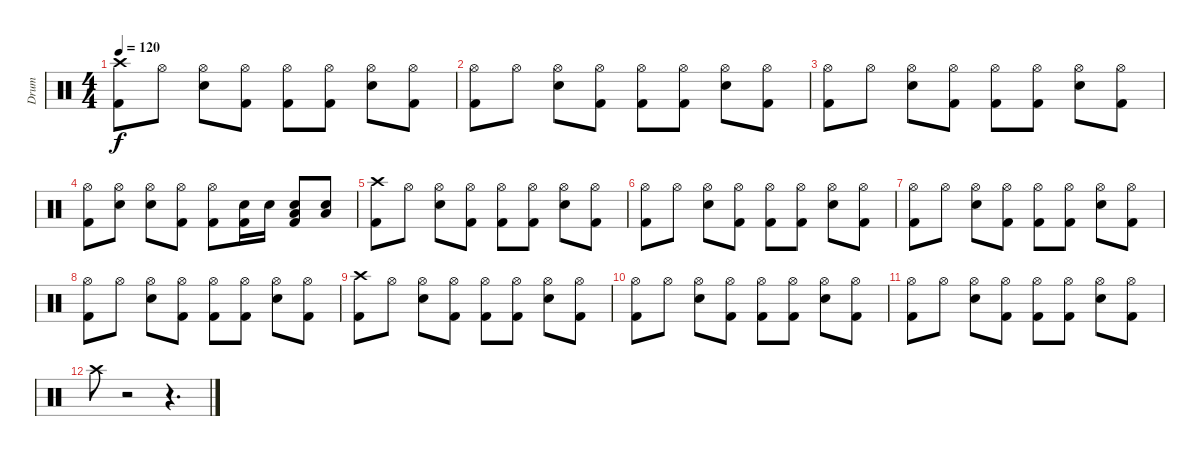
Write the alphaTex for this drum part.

\track ("Drum" "Drum") {instrument percussion}
\staff {score}
\articulation defaults
\ts (4 4)
\tempo 120
\clef neutral
\ks c
("Crash high (hit)" "Kick (hit) 2").8{dy f} "Hi-Hat (open)".8 ("Hi-Hat (open)" "Snare (hit) 2").8 ("Hi-Hat (open)" "Kick (hit) 2").8 ("Hi-Hat (open)" "Kick (hit) 2").8 ("Hi-Hat (open)" "Kick (hit) 2").8 ("Hi-Hat (open)" "Snare (hit) 2").8 ("Hi-Hat (open)" "Kick (hit) 2").8 |
("Hi-Hat (open)" "Kick (hit) 2").8 "Hi-Hat (open)".8 ("Hi-Hat (open)" "Snare (hit) 2").8 ("Hi-Hat (open)" "Kick (hit) 2").8 ("Hi-Hat (open)" "Kick (hit) 2").8 ("Hi-Hat (open)" "Kick (hit) 2").8 ("Hi-Hat (open)" "Snare (hit) 2").8 ("Hi-Hat (open)" "Kick (hit) 2").8 |
("Hi-Hat (open)" "Kick (hit) 2").8 "Hi-Hat (open)".8 ("Hi-Hat (open)" "Snare (hit) 2").8 ("Hi-Hat (open)" "Kick (hit) 2").8 ("Hi-Hat (open)" "Kick (hit) 2").8 ("Hi-Hat (open)" "Kick (hit) 2").8 ("Hi-Hat (open)" "Snare (hit) 2").8 ("Hi-Hat (open)" "Kick (hit) 2").8 |
("Hi-Hat (open)" "Kick (hit) 2").8 ("Hi-Hat (open)" "Snare (hit) 2").8 ("Hi-Hat (open)" "Snare (hit) 2").8 ("Hi-Hat (open)" "Kick (hit) 2").8 ("Hi-Hat (open)" "Kick (hit) 2").8 ("Snare (hit) 2" "Kick (hit) 2").16 "Snare (hit) 2".16 ("Low Tom (hit)" "Snare (hit) 2" "Kick (hit) 2").8 ("Low Floor Tom (hit)" "Snare (hit) 2").8 |
("Crash high (hit)" "Kick (hit) 2").8 "Hi-Hat (open)".8 ("Hi-Hat (open)" "Snare (hit) 2").8 ("Hi-Hat (open)" "Kick (hit) 2").8 ("Hi-Hat (open)" "Kick (hit) 2").8 ("Hi-Hat (open)" "Kick (hit) 2").8 ("Hi-Hat (open)" "Snare (hit) 2").8 ("Hi-Hat (open)" "Kick (hit) 2").8 |
("Hi-Hat (open)" "Kick (hit) 2").8 "Hi-Hat (open)".8 ("Hi-Hat (open)" "Snare (hit) 2").8 ("Hi-Hat (open)" "Kick (hit) 2").8 ("Hi-Hat (open)" "Kick (hit) 2").8 ("Hi-Hat (open)" "Kick (hit) 2").8 ("Hi-Hat (open)" "Snare (hit) 2").8 ("Hi-Hat (open)" "Kick (hit) 2").8 |
("Hi-Hat (open)" "Kick (hit) 2").8 "Hi-Hat (open)".8 ("Hi-Hat (open)" "Snare (hit) 2").8 ("Hi-Hat (open)" "Kick (hit) 2").8 ("Hi-Hat (open)" "Kick (hit) 2").8 ("Hi-Hat (open)" "Kick (hit) 2").8 ("Hi-Hat (open)" "Snare (hit) 2").8 ("Hi-Hat (open)" "Kick (hit) 2").8 |
("Hi-Hat (open)" "Kick (hit) 2").8 "Hi-Hat (open)".8 ("Hi-Hat (open)" "Snare (hit) 2").8 ("Hi-Hat (open)" "Kick (hit) 2").8 ("Hi-Hat (open)" "Kick (hit) 2").8 ("Hi-Hat (open)" "Kick (hit) 2").8 ("Hi-Hat (open)" "Snare (hit) 2").8 ("Hi-Hat (open)" "Kick (hit) 2").8 |
("Crash high (hit)" "Kick (hit) 2").8 "Hi-Hat (open)".8 ("Hi-Hat (open)" "Snare (hit) 2").8 ("Hi-Hat (open)" "Kick (hit) 2").8 ("Hi-Hat (open)" "Kick (hit) 2").8 ("Hi-Hat (open)" "Kick (hit) 2").8 ("Hi-Hat (open)" "Snare (hit) 2").8 ("Hi-Hat (open)" "Kick (hit) 2").8 |
("Hi-Hat (open)" "Kick (hit) 2").8 "Hi-Hat (open)".8 ("Hi-Hat (open)" "Snare (hit) 2").8 ("Hi-Hat (open)" "Kick (hit) 2").8 ("Hi-Hat (open)" "Kick (hit) 2").8 ("Hi-Hat (open)" "Kick (hit) 2").8 ("Hi-Hat (open)" "Snare (hit) 2").8 ("Hi-Hat (open)" "Kick (hit) 2").8 |
("Hi-Hat (open)" "Kick (hit) 2").8 "Hi-Hat (open)".8 ("Hi-Hat (open)" "Snare (hit) 2").8 ("Hi-Hat (open)" "Kick (hit) 2").8 ("Hi-Hat (open)" "Kick (hit) 2").8 ("Hi-Hat (open)" "Kick (hit) 2").8 ("Hi-Hat (open)" "Snare (hit) 2").8 ("Hi-Hat (open)" "Kick (hit) 2").8 |
"Crash high (hit)".8 r.2 r.4{d}
